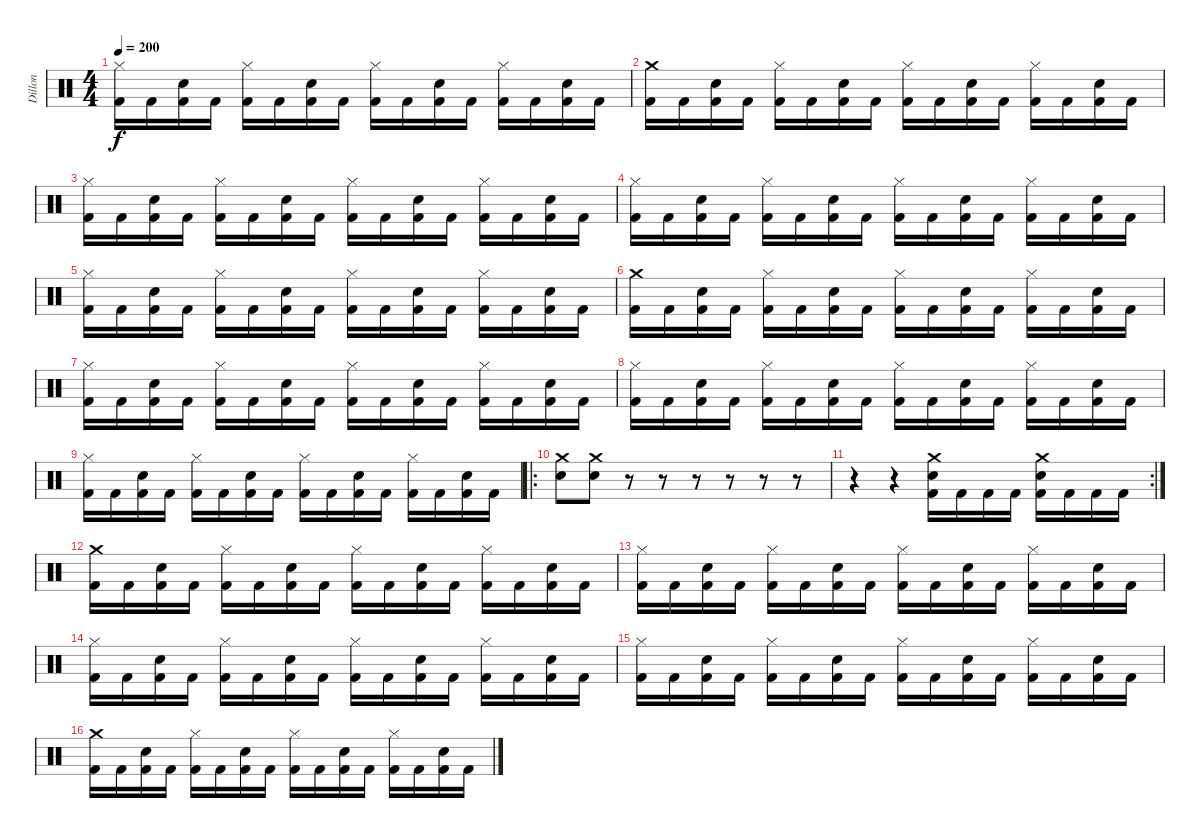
\track ("Dillon" "Dillon") {instrument percussion}
\staff {score}
\articulation defaults
\ts (4 4)
\tempo 200
\clef neutral
\ks c
("Hi-Hat (closed)" "Kick (hit) 2").16{dy f} "Kick (hit) 2".16 ("Electric Snare (hit)" "Kick (hit) 2").16 "Kick (hit) 2".16 ("Hi-Hat (closed)" "Kick (hit) 2").16 "Kick (hit) 2".16 ("Electric Snare (hit)" "Kick (hit) 2").16 "Kick (hit) 2".16 ("Hi-Hat (closed)" "Kick (hit) 2").16 "Kick (hit) 2".16 ("Electric Snare (hit)" "Kick (hit) 2").16 "Kick (hit) 2".16 ("Hi-Hat (closed)" "Kick (hit) 2").16 "Kick (hit) 2".16 ("Electric Snare (hit)" "Kick (hit) 2").16 "Kick (hit) 2".16 |
("Crash medium (hit)" "Kick (hit) 2").16 "Kick (hit) 2".16 ("Electric Snare (hit)" "Kick (hit) 2").16 "Kick (hit) 2".16 ("Hi-Hat (closed)" "Kick (hit) 2").16 "Kick (hit) 2".16 ("Electric Snare (hit)" "Kick (hit) 2").16 "Kick (hit) 2".16 ("Hi-Hat (closed)" "Kick (hit) 2").16 "Kick (hit) 2".16 ("Electric Snare (hit)" "Kick (hit) 2").16 "Kick (hit) 2".16 ("Hi-Hat (closed)" "Kick (hit) 2").16 "Kick (hit) 2".16 ("Electric Snare (hit)" "Kick (hit) 2").16 "Kick (hit) 2".16 |
("Hi-Hat (closed)" "Kick (hit) 2").16 "Kick (hit) 2".16 ("Electric Snare (hit)" "Kick (hit) 2").16 "Kick (hit) 2".16 ("Hi-Hat (closed)" "Kick (hit) 2").16 "Kick (hit) 2".16 ("Electric Snare (hit)" "Kick (hit) 2").16 "Kick (hit) 2".16 ("Hi-Hat (closed)" "Kick (hit) 2").16 "Kick (hit) 2".16 ("Electric Snare (hit)" "Kick (hit) 2").16 "Kick (hit) 2".16 ("Hi-Hat (closed)" "Kick (hit) 2").16 "Kick (hit) 2".16 ("Electric Snare (hit)" "Kick (hit) 2").16 "Kick (hit) 2".16 |
("Hi-Hat (closed)" "Kick (hit) 2").16 "Kick (hit) 2".16 ("Electric Snare (hit)" "Kick (hit) 2").16 "Kick (hit) 2".16 ("Hi-Hat (closed)" "Kick (hit) 2").16 "Kick (hit) 2".16 ("Electric Snare (hit)" "Kick (hit) 2").16 "Kick (hit) 2".16 ("Hi-Hat (closed)" "Kick (hit) 2").16 "Kick (hit) 2".16 ("Electric Snare (hit)" "Kick (hit) 2").16 "Kick (hit) 2".16 ("Hi-Hat (closed)" "Kick (hit) 2").16 "Kick (hit) 2".16 ("Electric Snare (hit)" "Kick (hit) 2").16 "Kick (hit) 2".16 |
("Hi-Hat (closed)" "Kick (hit) 2").16 "Kick (hit) 2".16 ("Electric Snare (hit)" "Kick (hit) 2").16 "Kick (hit) 2".16 ("Hi-Hat (closed)" "Kick (hit) 2").16 "Kick (hit) 2".16 ("Electric Snare (hit)" "Kick (hit) 2").16 "Kick (hit) 2".16 ("Hi-Hat (closed)" "Kick (hit) 2").16 "Kick (hit) 2".16 ("Electric Snare (hit)" "Kick (hit) 2").16 "Kick (hit) 2".16 ("Hi-Hat (closed)" "Kick (hit) 2").16 "Kick (hit) 2".16 ("Electric Snare (hit)" "Kick (hit) 2").16 "Kick (hit) 2".16 |
("Crash medium (hit)" "Kick (hit) 2").16 "Kick (hit) 2".16 ("Electric Snare (hit)" "Kick (hit) 2").16 "Kick (hit) 2".16 ("Hi-Hat (closed)" "Kick (hit) 2").16 "Kick (hit) 2".16 ("Electric Snare (hit)" "Kick (hit) 2").16 "Kick (hit) 2".16 ("Hi-Hat (closed)" "Kick (hit) 2").16 "Kick (hit) 2".16 ("Electric Snare (hit)" "Kick (hit) 2").16 "Kick (hit) 2".16 ("Hi-Hat (closed)" "Kick (hit) 2").16 "Kick (hit) 2".16 ("Electric Snare (hit)" "Kick (hit) 2").16 "Kick (hit) 2".16 |
("Hi-Hat (closed)" "Kick (hit) 2").16 "Kick (hit) 2".16 ("Electric Snare (hit)" "Kick (hit) 2").16 "Kick (hit) 2".16 ("Hi-Hat (closed)" "Kick (hit) 2").16 "Kick (hit) 2".16 ("Electric Snare (hit)" "Kick (hit) 2").16 "Kick (hit) 2".16 ("Hi-Hat (closed)" "Kick (hit) 2").16 "Kick (hit) 2".16 ("Electric Snare (hit)" "Kick (hit) 2").16 "Kick (hit) 2".16 ("Hi-Hat (closed)" "Kick (hit) 2").16 "Kick (hit) 2".16 ("Electric Snare (hit)" "Kick (hit) 2").16 "Kick (hit) 2".16 |
("Hi-Hat (closed)" "Kick (hit) 2").16 "Kick (hit) 2".16 ("Electric Snare (hit)" "Kick (hit) 2").16 "Kick (hit) 2".16 ("Hi-Hat (closed)" "Kick (hit) 2").16 "Kick (hit) 2".16 ("Electric Snare (hit)" "Kick (hit) 2").16 "Kick (hit) 2".16 ("Hi-Hat (closed)" "Kick (hit) 2").16 "Kick (hit) 2".16 ("Electric Snare (hit)" "Kick (hit) 2").16 "Kick (hit) 2".16 ("Hi-Hat (closed)" "Kick (hit) 2").16 "Kick (hit) 2".16 ("Electric Snare (hit)" "Kick (hit) 2").16 "Kick (hit) 2".16 |
("Hi-Hat (closed)" "Kick (hit) 2").16 "Kick (hit) 2".16 ("Electric Snare (hit)" "Kick (hit) 2").16 "Kick (hit) 2".16 ("Hi-Hat (closed)" "Kick (hit) 2").16 "Kick (hit) 2".16 ("Electric Snare (hit)" "Kick (hit) 2").16 "Kick (hit) 2".16 ("Hi-Hat (closed)" "Kick (hit) 2").16 "Kick (hit) 2".16 ("Electric Snare (hit)" "Kick (hit) 2").16 "Kick (hit) 2".16 ("Hi-Hat (closed)" "Kick (hit) 2").16 "Kick (hit) 2".16 ("Electric Snare (hit)" "Kick (hit) 2").16 "Kick (hit) 2".16 |
\ro
("Crash medium (hit)" "Electric Snare (hit)").8 ("Crash medium (hit)" "Electric Snare (hit)").8 r.8 r.8 r.8 r.8 r.8 r.8 |
\rc 2
r.4 r.4 ("Crash medium (hit)" "Electric Snare (hit)" "Kick (hit) 2").16 "Kick (hit) 2".16 "Kick (hit) 2".16 "Kick (hit) 2".16 ("Crash medium (hit)" "Electric Snare (hit)" "Kick (hit) 2").16 "Kick (hit) 2".16 "Kick (hit) 2".16 "Kick (hit) 2".16 |
("Crash medium (hit)" "Kick (hit) 2").16 "Kick (hit) 2".16 ("Electric Snare (hit)" "Kick (hit) 2").16 "Kick (hit) 2".16 ("Hi-Hat (closed)" "Kick (hit) 2").16 "Kick (hit) 2".16 ("Electric Snare (hit)" "Kick (hit) 2").16 "Kick (hit) 2".16 ("Hi-Hat (closed)" "Kick (hit) 2").16 "Kick (hit) 2".16 ("Electric Snare (hit)" "Kick (hit) 2").16 "Kick (hit) 2".16 ("Hi-Hat (closed)" "Kick (hit) 2").16 "Kick (hit) 2".16 ("Electric Snare (hit)" "Kick (hit) 2").16 "Kick (hit) 2".16 |
("Hi-Hat (closed)" "Kick (hit) 2").16 "Kick (hit) 2".16 ("Electric Snare (hit)" "Kick (hit) 2").16 "Kick (hit) 2".16 ("Hi-Hat (closed)" "Kick (hit) 2").16 "Kick (hit) 2".16 ("Electric Snare (hit)" "Kick (hit) 2").16 "Kick (hit) 2".16 ("Hi-Hat (closed)" "Kick (hit) 2").16 "Kick (hit) 2".16 ("Electric Snare (hit)" "Kick (hit) 2").16 "Kick (hit) 2".16 ("Hi-Hat (closed)" "Kick (hit) 2").16 "Kick (hit) 2".16 ("Electric Snare (hit)" "Kick (hit) 2").16 "Kick (hit) 2".16 |
("Hi-Hat (closed)" "Kick (hit) 2").16 "Kick (hit) 2".16 ("Electric Snare (hit)" "Kick (hit) 2").16 "Kick (hit) 2".16 ("Hi-Hat (closed)" "Kick (hit) 2").16 "Kick (hit) 2".16 ("Electric Snare (hit)" "Kick (hit) 2").16 "Kick (hit) 2".16 ("Hi-Hat (closed)" "Kick (hit) 2").16 "Kick (hit) 2".16 ("Electric Snare (hit)" "Kick (hit) 2").16 "Kick (hit) 2".16 ("Hi-Hat (closed)" "Kick (hit) 2").16 "Kick (hit) 2".16 ("Electric Snare (hit)" "Kick (hit) 2").16 "Kick (hit) 2".16 |
("Hi-Hat (closed)" "Kick (hit) 2").16 "Kick (hit) 2".16 ("Electric Snare (hit)" "Kick (hit) 2").16 "Kick (hit) 2".16 ("Hi-Hat (closed)" "Kick (hit) 2").16 "Kick (hit) 2".16 ("Electric Snare (hit)" "Kick (hit) 2").16 "Kick (hit) 2".16 ("Hi-Hat (closed)" "Kick (hit) 2").16 "Kick (hit) 2".16 ("Electric Snare (hit)" "Kick (hit) 2").16 "Kick (hit) 2".16 ("Hi-Hat (closed)" "Kick (hit) 2").16 "Kick (hit) 2".16 ("Electric Snare (hit)" "Kick (hit) 2").16 "Kick (hit) 2".16 |
("Crash medium (hit)" "Kick (hit) 2").16 "Kick (hit) 2".16 ("Electric Snare (hit)" "Kick (hit) 2").16 "Kick (hit) 2".16 ("Hi-Hat (closed)" "Kick (hit) 2").16 "Kick (hit) 2".16 ("Electric Snare (hit)" "Kick (hit) 2").16 "Kick (hit) 2".16 ("Hi-Hat (closed)" "Kick (hit) 2").16 "Kick (hit) 2".16 ("Electric Snare (hit)" "Kick (hit) 2").16 "Kick (hit) 2".16 ("Hi-Hat (closed)" "Kick (hit) 2").16 "Kick (hit) 2".16 ("Electric Snare (hit)" "Kick (hit) 2").16 "Kick (hit) 2".16
